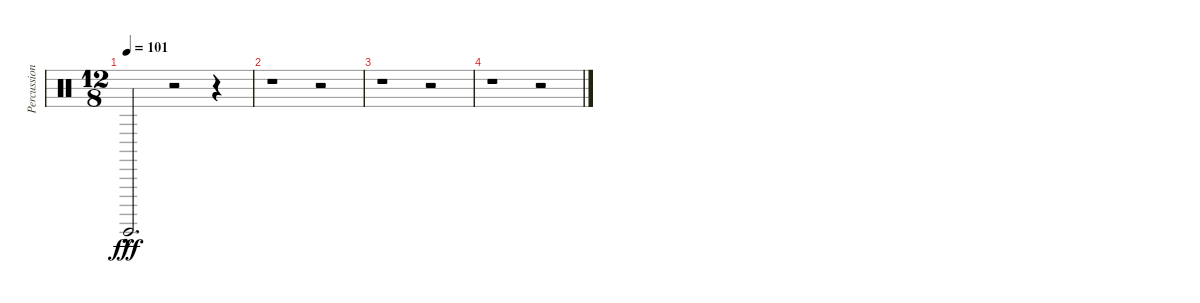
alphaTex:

\track ("Percussion" "Percussion") {instrument percussion}
\staff {score}
\articulation defaults
\ts (12 8)
\tempo 101
\clef neutral
\ks c "Surdo (hit)"{hac}.2{d dy fff}
r.2 r.4 |
r.1 r.2 |
r.1 r.2 |
r.1 r.2
